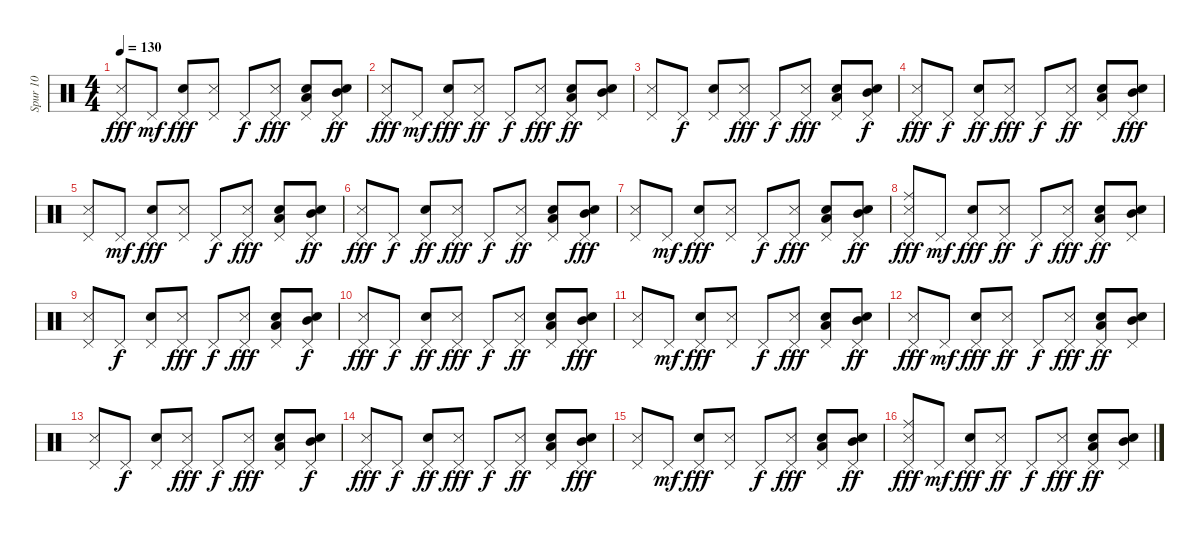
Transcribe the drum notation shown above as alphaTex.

\track ("Spur 10" "Spur 10") {instrument percussion}
\staff {score}
\articulation defaults
\ts (4 4)
\tempo 130
\clef neutral
\ks c
("Pedal Hi-Hat (hit)" "Metronome (hit)").8{dy fff} "Pedal Hi-Hat (hit)".8{dy mf} ("Pedal Hi-Hat (hit)" "Snare (hit) 2").8{dy fff} ("Pedal Hi-Hat (hit)" "Metronome (hit)").8 "Pedal Hi-Hat (hit)".8{dy f} ("Pedal Hi-Hat (hit)" "Metronome (hit)").8{dy fff} ("Low Tom (hit)" "Pedal Hi-Hat (hit)" "Snare (hit) 2").8 ("Mid Tom (hit)" "Pedal Hi-Hat (hit)" "Snare (hit) 2").8{dy ff} |
("Pedal Hi-Hat (hit)" "Metronome (hit)").8{dy fff} "Pedal Hi-Hat (hit)".8{dy mf} ("Pedal Hi-Hat (hit)" "Snare (hit) 2").8{dy fff} ("Metronome (hit)" "Pedal Hi-Hat (hit)").8{dy ff} "Pedal Hi-Hat (hit)".8{dy f} ("Metronome (hit)" "Pedal Hi-Hat (hit)").8{dy fff} ("Snare (hit) 2" "Low Tom (hit)" "Pedal Hi-Hat (hit)").8{dy ff} ("Snare (hit) 2" "Mid Tom (hit)" "Pedal Hi-Hat (hit)").8 |
("Metronome (hit)" "Pedal Hi-Hat (hit)").8 "Pedal Hi-Hat (hit)".8{dy f} ("Snare (hit) 2" "Pedal Hi-Hat (hit)").8 ("Metronome (hit)" "Pedal Hi-Hat (hit)").8{dy fff} "Pedal Hi-Hat (hit)".8{dy f} ("Metronome (hit)" "Pedal Hi-Hat (hit)").8{dy fff} ("Snare (hit) 2" "Low Tom (hit)" "Pedal Hi-Hat (hit)").8 ("Snare (hit) 2" "Mid Tom (hit)" "Pedal Hi-Hat (hit)").8{dy f} |
("Pedal Hi-Hat (hit)" "Metronome (hit)").8{dy fff} "Pedal Hi-Hat (hit)".8{dy f} ("Snare (hit) 2" "Pedal Hi-Hat (hit)").8{dy ff} ("Metronome (hit)" "Pedal Hi-Hat (hit)").8{dy fff} "Pedal Hi-Hat (hit)".8{dy f} ("Metronome (hit)" "Pedal Hi-Hat (hit)").8{dy ff} ("Low Tom (hit)" "Snare (hit) 2" "Pedal Hi-Hat (hit)").8 ("Mid Tom (hit)" "Snare (hit) 2" "Pedal Hi-Hat (hit)").8{dy fff} |
("Pedal Hi-Hat (hit)" "Metronome (hit)").8 "Pedal Hi-Hat (hit)".8{dy mf} ("Pedal Hi-Hat (hit)" "Snare (hit) 2").8{dy fff} ("Pedal Hi-Hat (hit)" "Metronome (hit)").8 "Pedal Hi-Hat (hit)".8{dy f} ("Pedal Hi-Hat (hit)" "Metronome (hit)").8{dy fff} ("Low Tom (hit)" "Pedal Hi-Hat (hit)" "Snare (hit) 2").8 ("Mid Tom (hit)" "Pedal Hi-Hat (hit)" "Snare (hit) 2").8{dy ff} |
("Pedal Hi-Hat (hit)" "Metronome (hit)").8{dy fff} "Pedal Hi-Hat (hit)".8{dy f} ("Snare (hit) 2" "Pedal Hi-Hat (hit)").8{dy ff} ("Metronome (hit)" "Pedal Hi-Hat (hit)").8{dy fff} "Pedal Hi-Hat (hit)".8{dy f} ("Metronome (hit)" "Pedal Hi-Hat (hit)").8{dy ff} ("Low Tom (hit)" "Snare (hit) 2" "Pedal Hi-Hat (hit)").8 ("Mid Tom (hit)" "Snare (hit) 2" "Pedal Hi-Hat (hit)").8{dy fff} |
("Pedal Hi-Hat (hit)" "Metronome (hit)").8 "Pedal Hi-Hat (hit)".8{dy mf} ("Pedal Hi-Hat (hit)" "Snare (hit) 2").8{dy fff} ("Pedal Hi-Hat (hit)" "Metronome (hit)").8 "Pedal Hi-Hat (hit)".8{dy f} ("Pedal Hi-Hat (hit)" "Metronome (hit)").8{dy fff} ("Low Tom (hit)" "Pedal Hi-Hat (hit)" "Snare (hit) 2").8 ("Mid Tom (hit)" "Pedal Hi-Hat (hit)" "Snare (hit) 2").8{dy ff} |
("Ride (middle)" "Pedal Hi-Hat (hit)" "Metronome (hit)").8{dy fff} "Pedal Hi-Hat (hit)".8{dy mf} ("Pedal Hi-Hat (hit)" "Snare (hit) 2").8{dy fff} ("Metronome (hit)" "Pedal Hi-Hat (hit)").8{dy ff} "Pedal Hi-Hat (hit)".8{dy f} ("Metronome (hit)" "Pedal Hi-Hat (hit)").8{dy fff} ("Snare (hit) 2" "Low Tom (hit)" "Pedal Hi-Hat (hit)").8{dy ff} ("Snare (hit) 2" "Mid Tom (hit)" "Pedal Hi-Hat (hit)").8 |
("Metronome (hit)" "Pedal Hi-Hat (hit)").8 "Pedal Hi-Hat (hit)".8{dy f} ("Snare (hit) 2" "Pedal Hi-Hat (hit)").8 ("Metronome (hit)" "Pedal Hi-Hat (hit)").8{dy fff} "Pedal Hi-Hat (hit)".8{dy f} ("Metronome (hit)" "Pedal Hi-Hat (hit)").8{dy fff} ("Snare (hit) 2" "Low Tom (hit)" "Pedal Hi-Hat (hit)").8 ("Snare (hit) 2" "Mid Tom (hit)" "Pedal Hi-Hat (hit)").8{dy f} |
("Pedal Hi-Hat (hit)" "Metronome (hit)").8{dy fff} "Pedal Hi-Hat (hit)".8{dy f} ("Snare (hit) 2" "Pedal Hi-Hat (hit)").8{dy ff} ("Metronome (hit)" "Pedal Hi-Hat (hit)").8{dy fff} "Pedal Hi-Hat (hit)".8{dy f} ("Metronome (hit)" "Pedal Hi-Hat (hit)").8{dy ff} ("Low Tom (hit)" "Snare (hit) 2" "Pedal Hi-Hat (hit)").8 ("Mid Tom (hit)" "Snare (hit) 2" "Pedal Hi-Hat (hit)").8{dy fff} |
("Pedal Hi-Hat (hit)" "Metronome (hit)").8 "Pedal Hi-Hat (hit)".8{dy mf} ("Pedal Hi-Hat (hit)" "Snare (hit) 2").8{dy fff} ("Pedal Hi-Hat (hit)" "Metronome (hit)").8 "Pedal Hi-Hat (hit)".8{dy f} ("Pedal Hi-Hat (hit)" "Metronome (hit)").8{dy fff} ("Low Tom (hit)" "Pedal Hi-Hat (hit)" "Snare (hit) 2").8 ("Mid Tom (hit)" "Pedal Hi-Hat (hit)" "Snare (hit) 2").8{dy ff} |
("Pedal Hi-Hat (hit)" "Metronome (hit)").8{dy fff} "Pedal Hi-Hat (hit)".8{dy mf} ("Pedal Hi-Hat (hit)" "Snare (hit) 2").8{dy fff} ("Metronome (hit)" "Pedal Hi-Hat (hit)").8{dy ff} "Pedal Hi-Hat (hit)".8{dy f} ("Metronome (hit)" "Pedal Hi-Hat (hit)").8{dy fff} ("Snare (hit) 2" "Low Tom (hit)" "Pedal Hi-Hat (hit)").8{dy ff} ("Snare (hit) 2" "Mid Tom (hit)" "Pedal Hi-Hat (hit)").8 |
("Metronome (hit)" "Pedal Hi-Hat (hit)").8 "Pedal Hi-Hat (hit)".8{dy f} ("Snare (hit) 2" "Pedal Hi-Hat (hit)").8 ("Metronome (hit)" "Pedal Hi-Hat (hit)").8{dy fff} "Pedal Hi-Hat (hit)".8{dy f} ("Metronome (hit)" "Pedal Hi-Hat (hit)").8{dy fff} ("Snare (hit) 2" "Low Tom (hit)" "Pedal Hi-Hat (hit)").8 ("Snare (hit) 2" "Mid Tom (hit)" "Pedal Hi-Hat (hit)").8{dy f} |
("Pedal Hi-Hat (hit)" "Metronome (hit)").8{dy fff} "Pedal Hi-Hat (hit)".8{dy f} ("Snare (hit) 2" "Pedal Hi-Hat (hit)").8{dy ff} ("Metronome (hit)" "Pedal Hi-Hat (hit)").8{dy fff} "Pedal Hi-Hat (hit)".8{dy f} ("Metronome (hit)" "Pedal Hi-Hat (hit)").8{dy ff} ("Low Tom (hit)" "Snare (hit) 2" "Pedal Hi-Hat (hit)").8 ("Mid Tom (hit)" "Snare (hit) 2" "Pedal Hi-Hat (hit)").8{dy fff} |
("Pedal Hi-Hat (hit)" "Metronome (hit)").8 "Pedal Hi-Hat (hit)".8{dy mf} ("Pedal Hi-Hat (hit)" "Snare (hit) 2").8{dy fff} ("Pedal Hi-Hat (hit)" "Metronome (hit)").8 "Pedal Hi-Hat (hit)".8{dy f} ("Pedal Hi-Hat (hit)" "Metronome (hit)").8{dy fff} ("Low Tom (hit)" "Pedal Hi-Hat (hit)" "Snare (hit) 2").8 ("Mid Tom (hit)" "Pedal Hi-Hat (hit)" "Snare (hit) 2").8{dy ff} |
("Ride (middle)" "Pedal Hi-Hat (hit)" "Metronome (hit)").8{dy fff} "Pedal Hi-Hat (hit)".8{dy mf} ("Pedal Hi-Hat (hit)" "Snare (hit) 2").8{dy fff} ("Metronome (hit)" "Pedal Hi-Hat (hit)").8{dy ff} "Pedal Hi-Hat (hit)".8{dy f} ("Metronome (hit)" "Pedal Hi-Hat (hit)").8{dy fff} ("Snare (hit) 2" "Low Tom (hit)" "Pedal Hi-Hat (hit)").8{dy ff} ("Snare (hit) 2" "Mid Tom (hit)" "Pedal Hi-Hat (hit)").8
